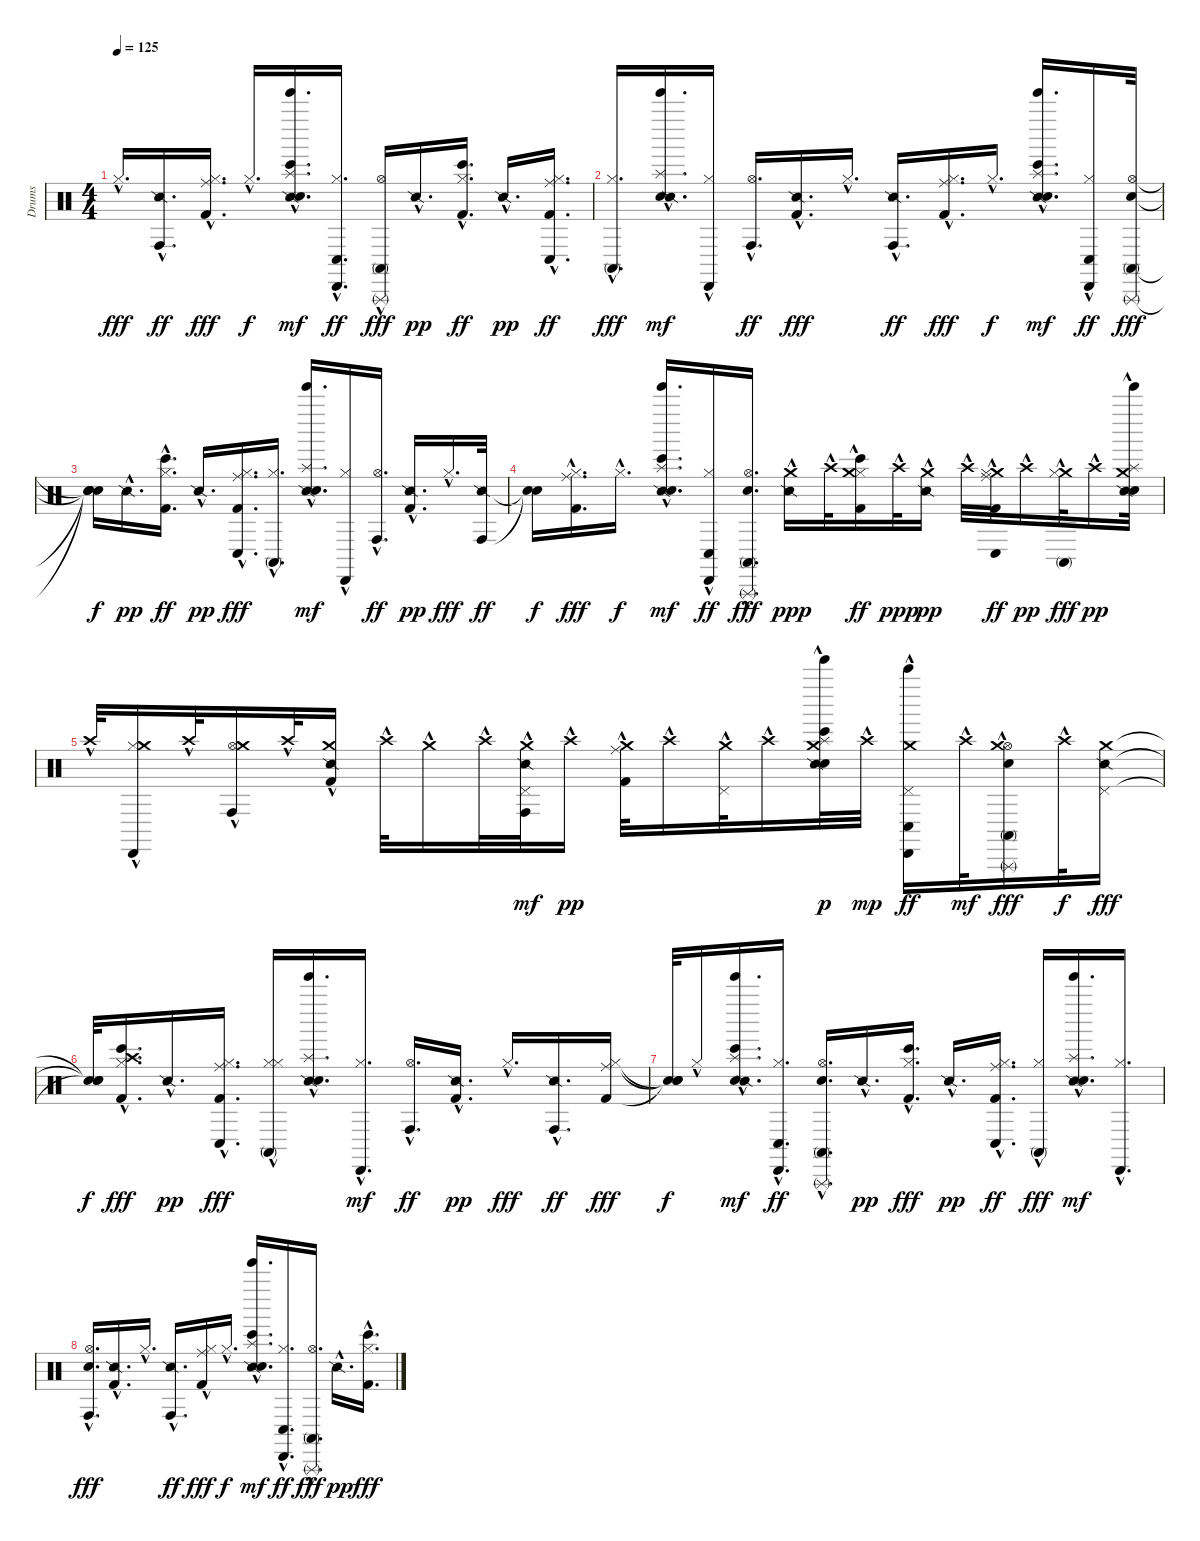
\track ("Drums" "Drums") {instrument percussion}
\staff {score}
\articulation defaults
\ts (4 4)
\tempo 125
\clef neutral
\ks c "Hi-Hat (closed)"{hac}.16{d dy fff}
("Snare (side stick) 2"{hac} "Conga high (hit)"{hac}).16{d dy ff} ("Hi-Hat (closed)"{hac} "Ride (middle)"{hac} "Kick (hit) 2"{hac}).16{d dy fff} "Hi-Hat (closed)"{hac}.16{d dy f} ("Snare (side stick) 2"{hac} "Hand Clap (hit)"{hac} "Bongo High (hit)"{hac} "Tinkle Bell (hit)"{hac} "Splash (hit)"{hac}).16{d dy mf} ("Cabasa (hit)"{hac} "Hi-Hat (closed)"{hac} "Conga low (hit)"{hac}).16{d dy ff} ("Hi-Hat (open)"{hac} "Triangle (rnute)"{hac} "Conga high (mute)"{hac}).16{dy fff} "Snare (side stick) 2"{hac}.16{d dy pp} ("Hi-Hat (closed)"{hac} "Kick (hit) 2"{hac} "Bongo High (hit)"{hac}).16{d dy ff} "Snare (side stick) 2"{hac}.16{d dy pp} ("Kick (hit) 2"{hac} "Ride (middle)"{hac} "Conga low (hit)"{hac} "Hi-Hat (closed)"{hac}).16{d dy ff} |
("Hi-Hat (closed)"{hac} "Conga high (mute)"{hac}).16{d dy fff} ("Hand Clap (hit)"{hac} "Snare (side stick) 2"{hac} "Tinkle Bell (hit)"{hac} "Splash (hit)"{hac}).16{d dy mf} ("Hi-Hat (closed)"{hac} "Cabasa (hit)"{hac}).16 ("Hi-Hat (open)"{hac} "Conga high (hit)"{hac}).16{d dy ff} ("Snare (side stick) 2"{hac} "Kick (hit) 2"{hac}).16{d dy fff} "Hi-Hat (closed)"{hac}.16{d} ("Snare (side stick) 2"{hac} "Conga high (hit)"{hac}).16{d dy ff} ("Kick (hit) 2"{hac} "Ride (middle)"{hac} "Hi-Hat (closed)"{hac}).16{d dy fff} "Hi-Hat (closed)"{hac}.16{d dy f} ("Snare (side stick) 2"{hac} "Hand Clap (hit)"{hac} "Bongo High (hit)"{hac} "Tinkle Bell (hit)"{hac} "Splash (hit)"{hac}).16{d dy mf} ("Cabasa (hit)"{hac} "Hi-Hat (closed)"{hac} "Conga low (hit)"{hac}).16{dy ff} ("Conga high (mute)" "Triangle (rnute)" "Hand Clap (hit)" "Hi-Hat (open)").32{dy fff} |
("Snare (hit)"{t} "Snare (hit)"{t} "Snare (hit)"{t} "Snare (hit)"{t}).16{dy f} "Snare (side stick) 2"{hac}.16{d dy pp} ("Kick (hit) 2"{hac} "Hi-Hat (closed)"{hac} "Bongo High (hit)"{hac}).16{d dy ff} "Snare (side stick) 2"{hac}.16{d dy pp} ("Hi-Hat (closed)"{hac} "Conga low (hit)"{hac} "Ride (middle)"{hac} "Kick (hit) 2"{hac}).16{d dy fff} ("Hi-Hat (closed)"{hac} "Conga high (mute)"{hac}).16{d} ("Snare (side stick) 2"{hac} "Hand Clap (hit)"{hac} "Tinkle Bell (hit)"{hac} "Splash (hit)"{hac}).16{d dy mf} ("Hi-Hat (closed)"{hac} "Cabasa (hit)"{hac}).16 ("Hi-Hat (open)"{hac} "Conga high (hit)"{hac}).16{d dy ff} ("Kick (hit) 2"{hac} "Snare (side stick) 2"{hac}).16{d dy pp} "Hi-Hat (closed)"{hac}.16{d dy fff} ("Snare (side stick) 2" "Conga high (hit)").32{dy ff} |
("Snare (hit)"{t} "Snare (hit)"{t}).16{dy f} ("Kick (hit) 2"{hac} "Hi-Hat (closed)"{hac} "Ride (middle)"{hac}).16{d dy fff} "Hi-Hat (closed)"{hac}.16{d dy f} ("Bongo High (hit)"{hac} "Snare (side stick) 2"{hac} "Hand Clap (hit)"{hac} "Tinkle Bell (hit)"{hac} "Splash (hit)"{hac}).16{d dy mf} ("Cabasa (hit)"{hac} "Hi-Hat (closed)"{hac} "Conga low (hit)"{hac}).16{dy ff} ("Hand Clap (hit)"{hac} "Conga high (mute)"{hac} "Triangle (rnute)"{hac} "Hi-Hat (open)"{hac}).16{d dy fff} ("Snare (side stick) 2"{hac} "Crash medium (hit)"{hac}).16{dy ppp} "Crash high (hit)"{hac}.32 ("Hi-Hat (closed)"{hac} "Kick (hit) 2"{hac} "Crash medium (hit)"{hac} "Bongo High (hit)"{hac}).16{dy ff} "Crash high (hit)"{hac}.32{dy ppp} ("Snare (side stick) 2"{hac} "Crash medium (hit)"{hac}).16{dy pp} "Crash high (hit)"{hac}.32 ("Crash medium (hit)"{hac} "Ride (middle)"{hac} "Hi-Hat (closed)"{hac} "Kick (hit) 2"{hac} "Conga low (hit)"{hac}).32{dy ff} "Crash high (hit)"{hac}.16{dy pp} ("Crash medium (hit)"{hac} "Conga high (mute)"{hac} "Hi-Hat (closed)"{hac}).32{dy fff} "Crash high (hit)"{hac}.16{dy pp} ("Hand Clap (hit)"{hac} "Tinkle Bell (hit)"{hac} "Splash (hit)"{hac} "Snare (side stick) 2"{hac} "Crash medium (hit)"{hac}).32 |
"Crash high (hit)"{hac}.32 ("Hi-Hat (closed)"{hac} "Cabasa (hit)"{hac} "Crash medium (hit)"{hac}).16 "Crash high (hit)"{hac}.32 ("Conga high (hit)"{hac} "Hi-Hat (open)"{hac} "Crash medium (hit)"{hac}).16 "Crash high (hit)"{hac}.32 ("Snare (side stick) 2"{hac} "Kick (hit) 2"{hac} "Crash medium (hit)"{hac}).16 "Crash high (hit)"{hac}.32 "Crash medium (hit)"{hac}.16 "Crash high (hit)"{hac}.32 ("Snare (side stick) 2"{hac} "Conga high (hit)"{hac} "Crash medium (hit)"{hac} "Pedal Hi-Hat (hit)"{hac}).32{dy mf} "Crash high (hit)"{hac}.16{dy pp} ("Kick (hit) 2"{hac} "Ride (middle)"{hac} "Crash medium (hit)"{hac}).32 "Crash high (hit)"{hac}.16 ("Crash medium (hit)"{hac} "Pedal Hi-Hat (hit)"{hac}).32 "Crash high (hit)"{hac}.16 ("Bongo High (hit)"{hac} "Hand Clap (hit)"{hac} "Snare (side stick) 2"{hac} "Splash (hit)"{hac} "Tinkle Bell (hit)"{hac} "Crash medium (hit)"{hac}).32{dy p} "Crash high (hit)"{hac}.32{dy mp} ("Crash medium (hit)"{hac} "Bell Tree (hit)"{hac} "Cabasa (hit)"{hac} "Conga low (hit)"{hac} "Pedal Hi-Hat (hit)"{hac}).16{dy ff} "Crash high (hit)"{hac}.32{dy mf} ("Hand Clap (hit)"{hac} "Hi-Hat (open)"{hac} "Crash medium (hit)"{hac} "Triangle (rnute)"{hac} "Conga high (mute)"{hac}).16{dy fff} "Crash high (hit)"{hac}.32{dy f} ("Pedal Hi-Hat (hit)" "Crash medium (hit)" "Snare (side stick) 2").16{dy fff} |
("Snare (hit)"{t} "Snare (hit)"{t} "Snare (hit)"{t}).32{dy f} ("Crash high (hit)" "Bongo High (hit)"{hac} "Kick (hit) 2"{hac} "Hi-Hat (closed)"{hac}).16{d dy fff} "Snare (side stick) 2"{hac}.16{d dy pp} ("Hi-Hat (closed)"{hac} "Conga low (hit)"{hac} "Ride (middle)"{hac} "Kick (hit) 2"{hac}).16{d dy fff} ("Hi-Hat (closed)"{hac} "Hi-Hat (closed)"{hac} "Conga high (mute)"{hac}).16 ("Splash (hit)"{hac} "Tinkle Bell (hit)"{hac} "Snare (side stick) 2"{hac} "Hand Clap (hit)"{hac}).16{d} ("Hi-Hat (closed)"{hac} "Cabasa (hit)"{hac}).16{d dy mf} ("Hi-Hat (open)"{hac} "Conga high (hit)"{hac}).16{d dy ff} ("Kick (hit) 2"{hac} "Snare (side stick) 2"{hac}).16{d dy pp} "Hi-Hat (closed)"{hac}.16{d dy fff} ("Snare (side stick) 2"{hac} "Conga high (hit)"{hac}).16{d dy ff} ("Ride (middle)" "Kick (hit) 2" "Hi-Hat (closed)").16{dy fff} |
("Snare (hit)"{t} "Snare (hit)"{t} "Snare (hit)"{t}).32{dy f} "Hi-Hat (closed)"{hac}.16 ("Hand Clap (hit)"{hac} "Snare (side stick) 2"{hac} "Bongo High (hit)"{hac} "Tinkle Bell (hit)"{hac} "Splash (hit)"{hac}).16{d dy mf} ("Cabasa (hit)"{hac} "Hi-Hat (closed)"{hac} "Conga low (hit)"{hac}).16{d dy ff} ("Hi-Hat (open)"{hac} "Hand Clap (hit)"{hac} "Conga high (mute)"{hac} "Triangle (rnute)"{hac}).16{d} "Snare (side stick) 2"{hac}.16{d dy pp} ("Kick (hit) 2"{hac} "Bongo High (hit)"{hac} "Hi-Hat (closed)"{hac}).16{d dy fff} "Snare (side stick) 2"{hac}.16{d dy pp} ("Kick (hit) 2"{hac} "Ride (middle)"{hac} "Hi-Hat (closed)"{hac} "Conga low (hit)"{hac}).16{d dy ff} ("Hi-Hat (closed)"{hac} "Conga high (mute)"{hac}).16{dy fff} ("Snare (side stick) 2"{hac} "Hand Clap (hit)"{hac} "Tinkle Bell (hit)"{hac} "Splash (hit)"{hac}).16{d dy mf} ("Hi-Hat (closed)"{hac} "Cabasa (hit)"{hac}).16{d} |
("Hi-Hat (open)"{hac} "Conga high (hit)"{hac} "Hand Clap (hit)"{hac}).16{d dy fff} ("Snare (side stick) 2"{hac} "Kick (hit) 2"{hac}).16{d} "Hi-Hat (closed)"{hac}.16{d} ("Snare (side stick) 2"{hac} "Conga high (hit)"{hac}).16{d dy ff} ("Hi-Hat (closed)"{hac} "Kick (hit) 2"{hac} "Ride (middle)"{hac}).16{dy fff} "Hi-Hat (closed)"{hac}.16{d dy f} ("Snare (side stick) 2"{hac} "Hand Clap (hit)"{hac} "Bongo High (hit)"{hac} "Tinkle Bell (hit)"{hac} "Splash (hit)"{hac}).16{d dy mf} ("Cabasa (hit)"{hac} "Hi-Hat (closed)"{hac} "Conga low (hit)"{hac}).16{d dy ff} ("Hi-Hat (open)"{hac} "Triangle (rnute)"{hac} "Conga high (mute)"{hac}).16{d dy fff} "Snare (side stick) 2"{hac}.16{d dy pp} ("Bongo High (hit)"{hac} "Hi-Hat (closed)"{hac} "Kick (hit) 2"{hac}).16{d dy fff}
